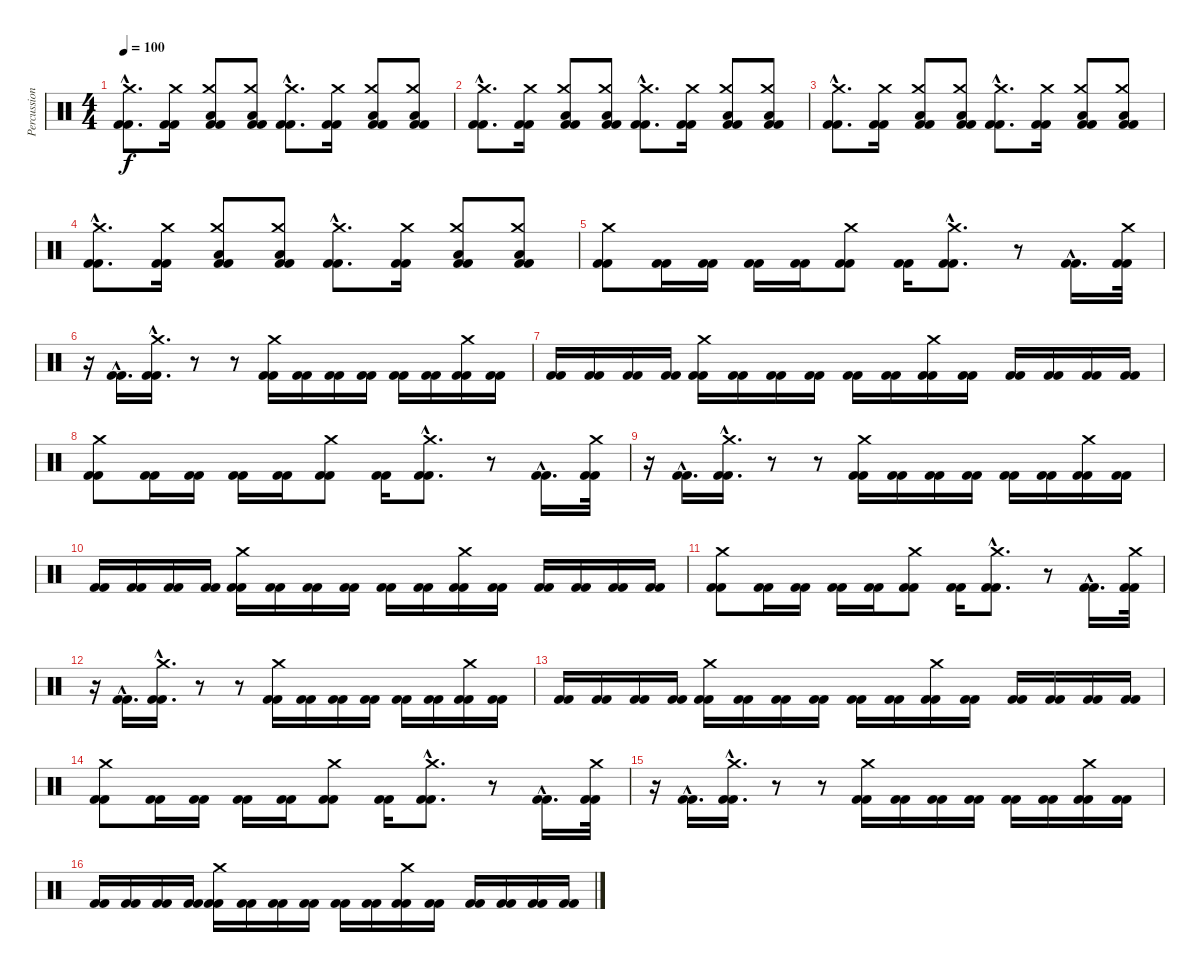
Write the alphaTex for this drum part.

\track ("Percussion" "Percussion") {instrument percussion}
\staff {score}
\articulation defaults
\ts (4 4)
\tempo 100
\clef neutral
\ks c
("Kick (hit) 2"{hac} "Kick (hit) 2"{hac} "Crash medium (hit)"{hac}).8{d dy f} ("Kick (hit) 2" "Kick (hit) 2" "Crash medium (hit)").16 ("Kick (hit) 2" "Kick (hit) 2" "Low Tom (hit)" "Crash medium (hit)").8 ("Kick (hit) 2" "Kick (hit) 2" "Low Tom (hit)" "Crash medium (hit)").8 ("Kick (hit) 2"{hac} "Kick (hit) 2"{hac} "Crash medium (hit)"{hac}).8{d} ("Kick (hit) 2" "Kick (hit) 2" "Crash medium (hit)").16 ("Kick (hit) 2" "Kick (hit) 2" "Low Tom (hit)" "Crash medium (hit)").8 ("Kick (hit) 2" "Kick (hit) 2" "Low Tom (hit)" "Crash medium (hit)").8 |
("Kick (hit) 2"{hac} "Kick (hit) 2"{hac} "Crash medium (hit)"{hac}).8{d} ("Kick (hit) 2" "Kick (hit) 2" "Crash medium (hit)").16 ("Kick (hit) 2" "Kick (hit) 2" "Low Tom (hit)" "Crash medium (hit)").8 ("Kick (hit) 2" "Kick (hit) 2" "Low Tom (hit)" "Crash medium (hit)").8 ("Kick (hit) 2"{hac} "Kick (hit) 2"{hac} "Crash medium (hit)"{hac}).8{d} ("Kick (hit) 2" "Kick (hit) 2" "Crash medium (hit)").16 ("Kick (hit) 2" "Kick (hit) 2" "Low Tom (hit)" "Crash medium (hit)").8 ("Kick (hit) 2" "Kick (hit) 2" "Low Tom (hit)" "Crash medium (hit)").8 |
("Kick (hit) 2"{hac} "Kick (hit) 2"{hac} "Crash medium (hit)"{hac}).8{d} ("Kick (hit) 2" "Kick (hit) 2" "Crash medium (hit)").16 ("Kick (hit) 2" "Kick (hit) 2" "Low Tom (hit)" "Crash medium (hit)").8 ("Kick (hit) 2" "Kick (hit) 2" "Low Tom (hit)" "Crash medium (hit)").8 ("Kick (hit) 2"{hac} "Kick (hit) 2"{hac} "Crash medium (hit)"{hac}).8{d} ("Kick (hit) 2" "Kick (hit) 2" "Crash medium (hit)").16 ("Kick (hit) 2" "Kick (hit) 2" "Low Tom (hit)" "Crash medium (hit)").8 ("Kick (hit) 2" "Kick (hit) 2" "Low Tom (hit)" "Crash medium (hit)").8 |
("Kick (hit) 2"{hac} "Kick (hit) 2"{hac} "Crash medium (hit)"{hac}).8{d} ("Kick (hit) 2" "Kick (hit) 2" "Crash medium (hit)").16 ("Kick (hit) 2" "Kick (hit) 2" "Low Tom (hit)" "Crash medium (hit)").8 ("Kick (hit) 2" "Kick (hit) 2" "Low Tom (hit)" "Crash medium (hit)").8 ("Kick (hit) 2"{hac} "Kick (hit) 2"{hac} "Crash medium (hit)"{hac}).8{d} ("Kick (hit) 2" "Kick (hit) 2" "Crash medium (hit)").16 ("Kick (hit) 2" "Kick (hit) 2" "Low Tom (hit)" "Crash medium (hit)").8 ("Kick (hit) 2" "Kick (hit) 2" "Low Tom (hit)" "Crash medium (hit)").8 |
("Kick (hit) 2" "Kick (hit) 2" "Crash medium (hit)").8 ("Kick (hit) 2" "Kick (hit) 2").16 ("Kick (hit) 2" "Kick (hit) 2").16 ("Kick (hit) 2" "Kick (hit) 2").16 ("Kick (hit) 2" "Kick (hit) 2").16 ("Kick (hit) 2" "Kick (hit) 2" "Crash medium (hit)").8 ("Kick (hit) 2" "Kick (hit) 2").16 ("Kick (hit) 2"{hac} "Kick (hit) 2"{hac} "Crash medium (hit)"{hac}).8{d} r.8 ("Kick (hit) 2"{hac} "Kick (hit) 2"{hac}).16{d} ("Kick (hit) 2" "Kick (hit) 2" "Crash medium (hit)").32 |
r.16 ("Kick (hit) 2"{hac} "Kick (hit) 2"{hac}).16{d} ("Kick (hit) 2"{hac} "Kick (hit) 2"{hac} "Crash medium (hit)"{hac}).16{d} r.8 r.8 ("Kick (hit) 2" "Kick (hit) 2" "Crash medium (hit)").16 ("Kick (hit) 2" "Kick (hit) 2").16 ("Kick (hit) 2" "Kick (hit) 2").16 ("Kick (hit) 2" "Kick (hit) 2").16 ("Kick (hit) 2" "Kick (hit) 2").16 ("Kick (hit) 2" "Kick (hit) 2").16 ("Kick (hit) 2" "Kick (hit) 2" "Crash medium (hit)").16 ("Kick (hit) 2" "Kick (hit) 2").16 |
("Kick (hit) 2" "Kick (hit) 2").16 ("Kick (hit) 2" "Kick (hit) 2").16 ("Kick (hit) 2" "Kick (hit) 2").16 ("Kick (hit) 2" "Kick (hit) 2").16 ("Kick (hit) 2" "Kick (hit) 2" "Crash medium (hit)").16 ("Kick (hit) 2" "Kick (hit) 2").16 ("Kick (hit) 2" "Kick (hit) 2").16 ("Kick (hit) 2" "Kick (hit) 2").16 ("Kick (hit) 2" "Kick (hit) 2").16 ("Kick (hit) 2" "Kick (hit) 2").16 ("Kick (hit) 2" "Kick (hit) 2" "Crash medium (hit)").16 ("Kick (hit) 2" "Kick (hit) 2").16 ("Kick (hit) 2" "Kick (hit) 2").16 ("Kick (hit) 2" "Kick (hit) 2").16 ("Kick (hit) 2" "Kick (hit) 2").16 ("Kick (hit) 2" "Kick (hit) 2").16 |
("Kick (hit) 2" "Kick (hit) 2" "Crash medium (hit)").8 ("Kick (hit) 2" "Kick (hit) 2").16 ("Kick (hit) 2" "Kick (hit) 2").16 ("Kick (hit) 2" "Kick (hit) 2").16 ("Kick (hit) 2" "Kick (hit) 2").16 ("Kick (hit) 2" "Kick (hit) 2" "Crash medium (hit)").8 ("Kick (hit) 2" "Kick (hit) 2").16 ("Kick (hit) 2"{hac} "Kick (hit) 2"{hac} "Crash medium (hit)"{hac}).8{d} r.8 ("Kick (hit) 2"{hac} "Kick (hit) 2"{hac}).16{d} ("Kick (hit) 2" "Kick (hit) 2" "Crash medium (hit)").32 |
r.16 ("Kick (hit) 2"{hac} "Kick (hit) 2"{hac}).16{d} ("Kick (hit) 2"{hac} "Kick (hit) 2"{hac} "Crash medium (hit)"{hac}).16{d} r.8 r.8 ("Kick (hit) 2" "Kick (hit) 2" "Crash medium (hit)").16 ("Kick (hit) 2" "Kick (hit) 2").16 ("Kick (hit) 2" "Kick (hit) 2").16 ("Kick (hit) 2" "Kick (hit) 2").16 ("Kick (hit) 2" "Kick (hit) 2").16 ("Kick (hit) 2" "Kick (hit) 2").16 ("Kick (hit) 2" "Kick (hit) 2" "Crash medium (hit)").16 ("Kick (hit) 2" "Kick (hit) 2").16 |
("Kick (hit) 2" "Kick (hit) 2").16 ("Kick (hit) 2" "Kick (hit) 2").16 ("Kick (hit) 2" "Kick (hit) 2").16 ("Kick (hit) 2" "Kick (hit) 2").16 ("Kick (hit) 2" "Kick (hit) 2" "Crash medium (hit)").16 ("Kick (hit) 2" "Kick (hit) 2").16 ("Kick (hit) 2" "Kick (hit) 2").16 ("Kick (hit) 2" "Kick (hit) 2").16 ("Kick (hit) 2" "Kick (hit) 2").16 ("Kick (hit) 2" "Kick (hit) 2").16 ("Kick (hit) 2" "Kick (hit) 2" "Crash medium (hit)").16 ("Kick (hit) 2" "Kick (hit) 2").16 ("Kick (hit) 2" "Kick (hit) 2").16 ("Kick (hit) 2" "Kick (hit) 2").16 ("Kick (hit) 2" "Kick (hit) 2").16 ("Kick (hit) 2" "Kick (hit) 2").16 |
("Kick (hit) 2" "Kick (hit) 2" "Crash medium (hit)").8 ("Kick (hit) 2" "Kick (hit) 2").16 ("Kick (hit) 2" "Kick (hit) 2").16 ("Kick (hit) 2" "Kick (hit) 2").16 ("Kick (hit) 2" "Kick (hit) 2").16 ("Kick (hit) 2" "Kick (hit) 2" "Crash medium (hit)").8 ("Kick (hit) 2" "Kick (hit) 2").16 ("Kick (hit) 2"{hac} "Kick (hit) 2"{hac} "Crash medium (hit)"{hac}).8{d} r.8 ("Kick (hit) 2"{hac} "Kick (hit) 2"{hac}).16{d} ("Kick (hit) 2" "Kick (hit) 2" "Crash medium (hit)").32 |
r.16 ("Kick (hit) 2"{hac} "Kick (hit) 2"{hac}).16{d} ("Kick (hit) 2"{hac} "Kick (hit) 2"{hac} "Crash medium (hit)"{hac}).16{d} r.8 r.8 ("Kick (hit) 2" "Kick (hit) 2" "Crash medium (hit)").16 ("Kick (hit) 2" "Kick (hit) 2").16 ("Kick (hit) 2" "Kick (hit) 2").16 ("Kick (hit) 2" "Kick (hit) 2").16 ("Kick (hit) 2" "Kick (hit) 2").16 ("Kick (hit) 2" "Kick (hit) 2").16 ("Kick (hit) 2" "Kick (hit) 2" "Crash medium (hit)").16 ("Kick (hit) 2" "Kick (hit) 2").16 |
("Kick (hit) 2" "Kick (hit) 2").16 ("Kick (hit) 2" "Kick (hit) 2").16 ("Kick (hit) 2" "Kick (hit) 2").16 ("Kick (hit) 2" "Kick (hit) 2").16 ("Kick (hit) 2" "Kick (hit) 2" "Crash medium (hit)").16 ("Kick (hit) 2" "Kick (hit) 2").16 ("Kick (hit) 2" "Kick (hit) 2").16 ("Kick (hit) 2" "Kick (hit) 2").16 ("Kick (hit) 2" "Kick (hit) 2").16 ("Kick (hit) 2" "Kick (hit) 2").16 ("Kick (hit) 2" "Kick (hit) 2" "Crash medium (hit)").16 ("Kick (hit) 2" "Kick (hit) 2").16 ("Kick (hit) 2" "Kick (hit) 2").16 ("Kick (hit) 2" "Kick (hit) 2").16 ("Kick (hit) 2" "Kick (hit) 2").16 ("Kick (hit) 2" "Kick (hit) 2").16 |
("Kick (hit) 2" "Kick (hit) 2" "Crash medium (hit)").8 ("Kick (hit) 2" "Kick (hit) 2").16 ("Kick (hit) 2" "Kick (hit) 2").16 ("Kick (hit) 2" "Kick (hit) 2").16 ("Kick (hit) 2" "Kick (hit) 2").16 ("Kick (hit) 2" "Kick (hit) 2" "Crash medium (hit)").8 ("Kick (hit) 2" "Kick (hit) 2").16 ("Kick (hit) 2"{hac} "Kick (hit) 2"{hac} "Crash medium (hit)"{hac}).8{d} r.8 ("Kick (hit) 2"{hac} "Kick (hit) 2"{hac}).16{d} ("Kick (hit) 2" "Kick (hit) 2" "Crash medium (hit)").32 |
r.16 ("Kick (hit) 2"{hac} "Kick (hit) 2"{hac}).16{d} ("Kick (hit) 2"{hac} "Kick (hit) 2"{hac} "Crash medium (hit)"{hac}).16{d} r.8 r.8 ("Kick (hit) 2" "Kick (hit) 2" "Crash medium (hit)").16 ("Kick (hit) 2" "Kick (hit) 2").16 ("Kick (hit) 2" "Kick (hit) 2").16 ("Kick (hit) 2" "Kick (hit) 2").16 ("Kick (hit) 2" "Kick (hit) 2").16 ("Kick (hit) 2" "Kick (hit) 2").16 ("Kick (hit) 2" "Kick (hit) 2" "Crash medium (hit)").16 ("Kick (hit) 2" "Kick (hit) 2").16 |
("Kick (hit) 2" "Kick (hit) 2").16 ("Kick (hit) 2" "Kick (hit) 2").16 ("Kick (hit) 2" "Kick (hit) 2").16 ("Kick (hit) 2" "Kick (hit) 2").16 ("Kick (hit) 2" "Kick (hit) 2" "Crash medium (hit)").16 ("Kick (hit) 2" "Kick (hit) 2").16 ("Kick (hit) 2" "Kick (hit) 2").16 ("Kick (hit) 2" "Kick (hit) 2").16 ("Kick (hit) 2" "Kick (hit) 2").16 ("Kick (hit) 2" "Kick (hit) 2").16 ("Kick (hit) 2" "Kick (hit) 2" "Crash medium (hit)").16 ("Kick (hit) 2" "Kick (hit) 2").16 ("Kick (hit) 2" "Kick (hit) 2").16 ("Kick (hit) 2" "Kick (hit) 2").16 ("Kick (hit) 2" "Kick (hit) 2").16 ("Kick (hit) 2" "Kick (hit) 2").16
